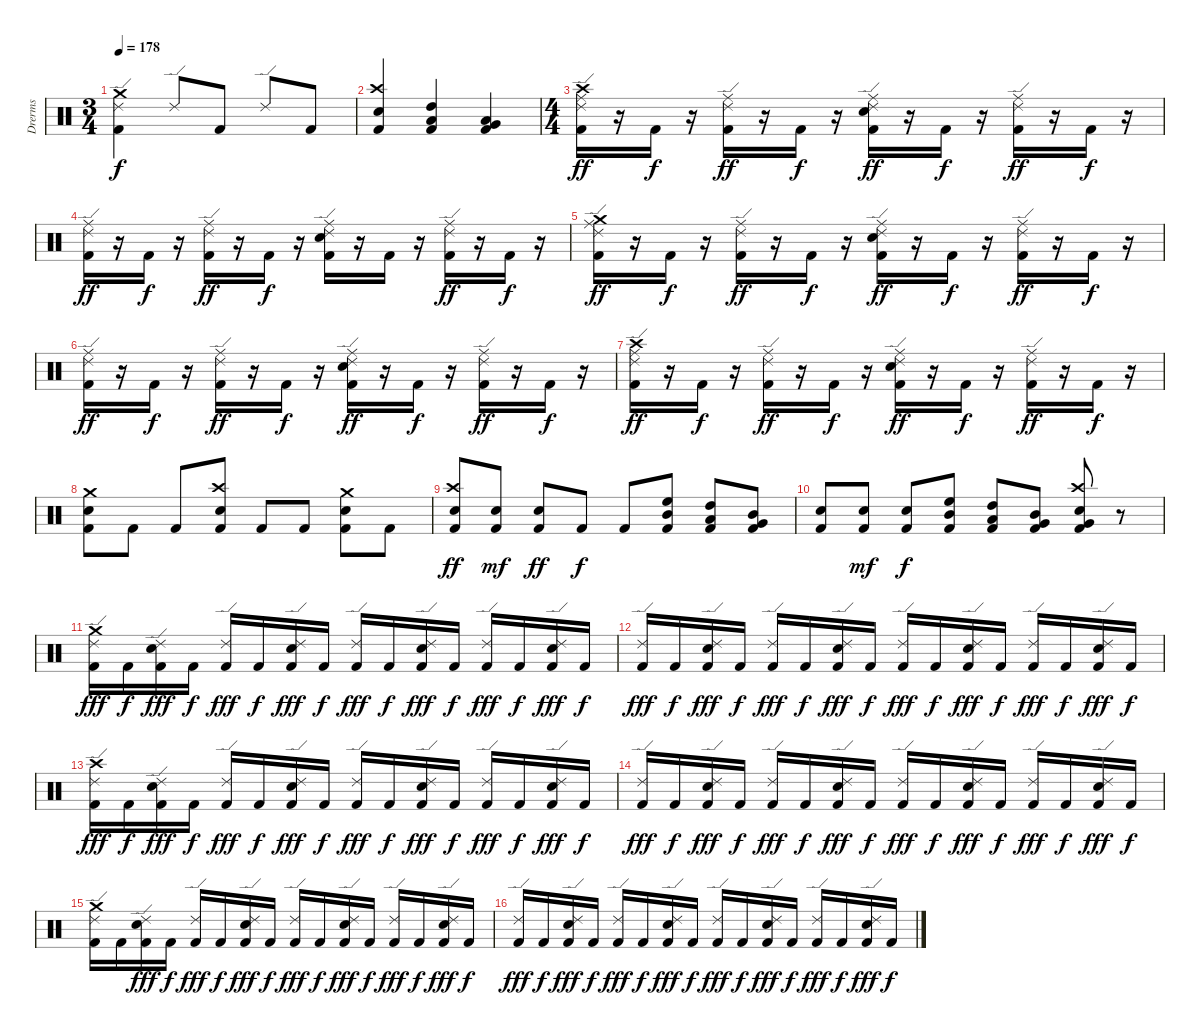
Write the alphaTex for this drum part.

\track ("Drerms" "Drerms") {instrument percussion}
\staff {score}
\articulation defaults
\ts (3 4)
\tempo 178
\clef neutral
\ks c
("Crash medium (hit)" "Ride (edge) 2" "Kick (hit) 2").4{dy f} "Ride (edge) 2".8 "Kick (hit) 2".8 "Ride (edge) 2".8 "Kick (hit) 2".8 |
("Crash high (hit)" "Snare (hit) 2" "Kick (hit) 2").4 ("High Tom (hit)" "Low Tom (hit)" "Kick (hit) 2").4 ("Low Tom (hit)" "Very Low Tom (hit)" "Kick (hit) 2").4 |
\ts (4 4)
("Crash high (hit)" "Ride (middle)" "Ride (edge) 2" "Kick (hit) 2").16{dy ff} r.16 "Kick (hit) 2".16{dy f} r.16 ("Ride (middle)" "Ride (edge) 2" "Kick (hit) 2").16{dy ff} r.16 "Kick (hit) 2".16{dy f} r.16 ("Snare (hit) 2" "Ride (middle)" "Ride (edge) 2" "Kick (hit) 2").16{dy ff} r.16 "Kick (hit) 2".16{dy f} r.16 ("Ride (middle)" "Ride (edge) 2" "Kick (hit) 2").16{dy ff} r.16 "Kick (hit) 2".16{dy f} r.16 |
("Ride (middle)" "Ride (edge) 2" "Kick (hit) 2").16{dy ff} r.16 "Kick (hit) 2".16{dy f} r.16 ("Ride (middle)" "Ride (edge) 2" "Kick (hit) 2").16{dy ff} r.16 "Kick (hit) 2".16{dy f} r.16 ("Snare (hit) 2" "Ride (middle)" "Ride (edge) 2" "Kick (hit) 2").16 r.16 "Kick (hit) 2".16 r.16 ("Ride (middle)" "Ride (edge) 2" "Kick (hit) 2").16{dy ff} r.16 "Kick (hit) 2".16{dy f} r.16 |
("Crash medium (hit)" "Ride (middle)" "Ride (edge) 2" "Kick (hit) 2").16{dy ff} r.16 "Kick (hit) 2".16{dy f} r.16 ("Ride (middle)" "Ride (edge) 2" "Kick (hit) 2").16{dy ff} r.16 "Kick (hit) 2".16{dy f} r.16 ("Snare (hit) 2" "Ride (middle)" "Ride (edge) 2" "Kick (hit) 2").16{dy ff} r.16 "Kick (hit) 2".16{dy f} r.16 ("Ride (middle)" "Ride (edge) 2" "Kick (hit) 2").16{dy ff} r.16 "Kick (hit) 2".16{dy f} r.16 |
("Ride (middle)" "Ride (edge) 2" "Kick (hit) 2").16{dy ff} r.16 "Kick (hit) 2".16{dy f} r.16 ("Ride (middle)" "Ride (edge) 2" "Kick (hit) 2").16{dy ff} r.16 "Kick (hit) 2".16{dy f} r.16 ("Snare (hit) 2" "Ride (middle)" "Ride (edge) 2" "Kick (hit) 2").16{dy ff} r.16 "Kick (hit) 2".16{dy f} r.16 ("Ride (middle)" "Ride (edge) 2" "Kick (hit) 2").16{dy ff} r.16 "Kick (hit) 2".16{dy f} r.16 |
("Crash high (hit)" "Ride (middle)" "Ride (edge) 2" "Kick (hit) 2").16{dy ff} r.16 "Kick (hit) 2".16{dy f} r.16 ("Ride (middle)" "Ride (edge) 2" "Kick (hit) 2").16{dy ff} r.16 "Kick (hit) 2".16{dy f} r.16 ("Snare (hit) 2" "Ride (middle)" "Ride (edge) 2" "Kick (hit) 2").16{dy ff} r.16 "Kick (hit) 2".16{dy f} r.16 ("Ride (middle)" "Ride (edge) 2" "Kick (hit) 2").16{dy ff} r.16 "Kick (hit) 2".16{dy f} r.16 |
("Crash medium (hit)" "Snare (hit) 2" "Kick (hit) 2").8 "Kick (hit) 2".8 "Kick (hit) 2".8 ("Crash high (hit)" "Snare (hit) 2" "Kick (hit) 2").8 "Kick (hit) 2".8 "Kick (hit) 2".8 ("Crash medium (hit)" "Snare (hit) 2" "Kick (hit) 2").8 "Kick (hit) 2".8 |
("Crash high (hit)" "Snare (hit) 2" "Kick (hit) 2").8{dy ff} ("Snare (hit) 2" "Kick (hit) 2").8{dy mf} ("Snare (hit) 2" "Kick (hit) 2").8{dy ff} "Kick (hit) 2".8{dy f} "Kick (hit) 2".8 ("High Floor Tom (hit)" "Mid Tom (hit)" "Kick (hit) 2").8 ("High Tom (hit)" "Low Tom (hit)" "Kick (hit) 2").8 ("Mid Tom (hit)" "Very Low Tom (hit)" "Kick (hit) 2").8 |
("Snare (hit) 2" "Kick (hit) 2").8 ("Snare (hit) 2" "Kick (hit) 2").8{dy mf} ("Snare (hit) 2" "Kick (hit) 2").8{dy f} ("High Floor Tom (hit)" "Mid Tom (hit)" "Kick (hit) 2").8 ("High Tom (hit)" "Low Tom (hit)" "Kick (hit) 2").8 ("Mid Tom (hit)" "Very Low Tom (hit)" "Kick (hit) 2").8 ("Crash high (hit)" "Snare (hit) 2" "Very Low Tom (hit)" "Kick (hit) 2").8 r.8 |
("Crash medium (hit)" "Ride (edge) 2" "Kick (hit) 2").16{dy fff} "Kick (hit) 2".16{dy f} ("Snare (hit) 2" "Ride (edge) 2" "Kick (hit) 2").16{dy fff} "Kick (hit) 2".16{dy f} ("Ride (edge) 2" "Kick (hit) 2").16{dy fff} "Kick (hit) 2".16{dy f} ("Snare (hit) 2" "Ride (edge) 2" "Kick (hit) 2").16{dy fff} "Kick (hit) 2".16{dy f} ("Ride (edge) 2" "Kick (hit) 2").16{dy fff} "Kick (hit) 2".16{dy f} ("Snare (hit) 2" "Ride (edge) 2" "Kick (hit) 2").16{dy fff} "Kick (hit) 2".16{dy f} ("Ride (edge) 2" "Kick (hit) 2").16{dy fff} "Kick (hit) 2".16{dy f} ("Snare (hit) 2" "Ride (edge) 2" "Kick (hit) 2").16{dy fff} "Kick (hit) 2".16{dy f} |
("Ride (edge) 2" "Kick (hit) 2").16{dy fff} "Kick (hit) 2".16{dy f} ("Snare (hit) 2" "Ride (edge) 2" "Kick (hit) 2").16{dy fff} "Kick (hit) 2".16{dy f} ("Ride (edge) 2" "Kick (hit) 2").16{dy fff} "Kick (hit) 2".16{dy f} ("Snare (hit) 2" "Ride (edge) 2" "Kick (hit) 2").16{dy fff} "Kick (hit) 2".16{dy f} ("Ride (edge) 2" "Kick (hit) 2").16{dy fff} "Kick (hit) 2".16{dy f} ("Snare (hit) 2" "Ride (edge) 2" "Kick (hit) 2").16{dy fff} "Kick (hit) 2".16{dy f} ("Ride (edge) 2" "Kick (hit) 2").16{dy fff} "Kick (hit) 2".16{dy f} ("Snare (hit) 2" "Ride (edge) 2" "Kick (hit) 2").16{dy fff} "Kick (hit) 2".16{dy f} |
("Crash high (hit)" "Ride (edge) 2" "Kick (hit) 2").16{dy fff} "Kick (hit) 2".16{dy f} ("Snare (hit) 2" "Ride (edge) 2" "Kick (hit) 2").16{dy fff} "Kick (hit) 2".16{dy f} ("Ride (edge) 2" "Kick (hit) 2").16{dy fff} "Kick (hit) 2".16{dy f} ("Snare (hit) 2" "Ride (edge) 2" "Kick (hit) 2").16{dy fff} "Kick (hit) 2".16{dy f} ("Ride (edge) 2" "Kick (hit) 2").16{dy fff} "Kick (hit) 2".16{dy f} ("Snare (hit) 2" "Ride (edge) 2" "Kick (hit) 2").16{dy fff} "Kick (hit) 2".16{dy f} ("Ride (edge) 2" "Kick (hit) 2").16{dy fff} "Kick (hit) 2".16{dy f} ("Snare (hit) 2" "Ride (edge) 2" "Kick (hit) 2").16{dy fff} "Kick (hit) 2".16{dy f} |
("Ride (edge) 2" "Kick (hit) 2").16{dy fff} "Kick (hit) 2".16{dy f} ("Snare (hit) 2" "Ride (edge) 2" "Kick (hit) 2").16{dy fff} "Kick (hit) 2".16{dy f} ("Ride (edge) 2" "Kick (hit) 2").16{dy fff} "Kick (hit) 2".16{dy f} ("Snare (hit) 2" "Ride (edge) 2" "Kick (hit) 2").16{dy fff} "Kick (hit) 2".16{dy f} ("Ride (edge) 2" "Kick (hit) 2").16{dy fff} "Kick (hit) 2".16{dy f} ("Snare (hit) 2" "Ride (edge) 2" "Kick (hit) 2").16{dy fff} "Kick (hit) 2".16{dy f} ("Ride (edge) 2" "Kick (hit) 2").16{dy fff} "Kick (hit) 2".16{dy f} ("Snare (hit) 2" "Ride (edge) 2" "Kick (hit) 2").16{dy fff} "Kick (hit) 2".16{dy f} |
("Crash medium (hit)" "Ride (edge) 2" "Kick (hit) 2").16 "Kick (hit) 2".16 ("Snare (hit) 2" "Ride (edge) 2" "Kick (hit) 2").16{dy fff} "Kick (hit) 2".16{dy f} ("Ride (edge) 2" "Kick (hit) 2").16{dy fff} "Kick (hit) 2".16{dy f} ("Snare (hit) 2" "Ride (edge) 2" "Kick (hit) 2").16{dy fff} "Kick (hit) 2".16{dy f} ("Ride (edge) 2" "Kick (hit) 2").16{dy fff} "Kick (hit) 2".16{dy f} ("Snare (hit) 2" "Ride (edge) 2" "Kick (hit) 2").16{dy fff} "Kick (hit) 2".16{dy f} ("Ride (edge) 2" "Kick (hit) 2").16{dy fff} "Kick (hit) 2".16{dy f} ("Snare (hit) 2" "Ride (edge) 2" "Kick (hit) 2").16{dy fff} "Kick (hit) 2".16{dy f} |
("Ride (edge) 2" "Kick (hit) 2").16{dy fff} "Kick (hit) 2".16{dy f} ("Snare (hit) 2" "Ride (edge) 2" "Kick (hit) 2").16{dy fff} "Kick (hit) 2".16{dy f} ("Ride (edge) 2" "Kick (hit) 2").16{dy fff} "Kick (hit) 2".16{dy f} ("Snare (hit) 2" "Ride (edge) 2" "Kick (hit) 2").16{dy fff} "Kick (hit) 2".16{dy f} ("Ride (edge) 2" "Kick (hit) 2").16{dy fff} "Kick (hit) 2".16{dy f} ("Snare (hit) 2" "Ride (edge) 2" "Kick (hit) 2").16{dy fff} "Kick (hit) 2".16{dy f} ("Ride (edge) 2" "Kick (hit) 2").16{dy fff} "Kick (hit) 2".16{dy f} ("Snare (hit) 2" "Ride (edge) 2" "Kick (hit) 2").16{dy fff} "Kick (hit) 2".16{dy f}
